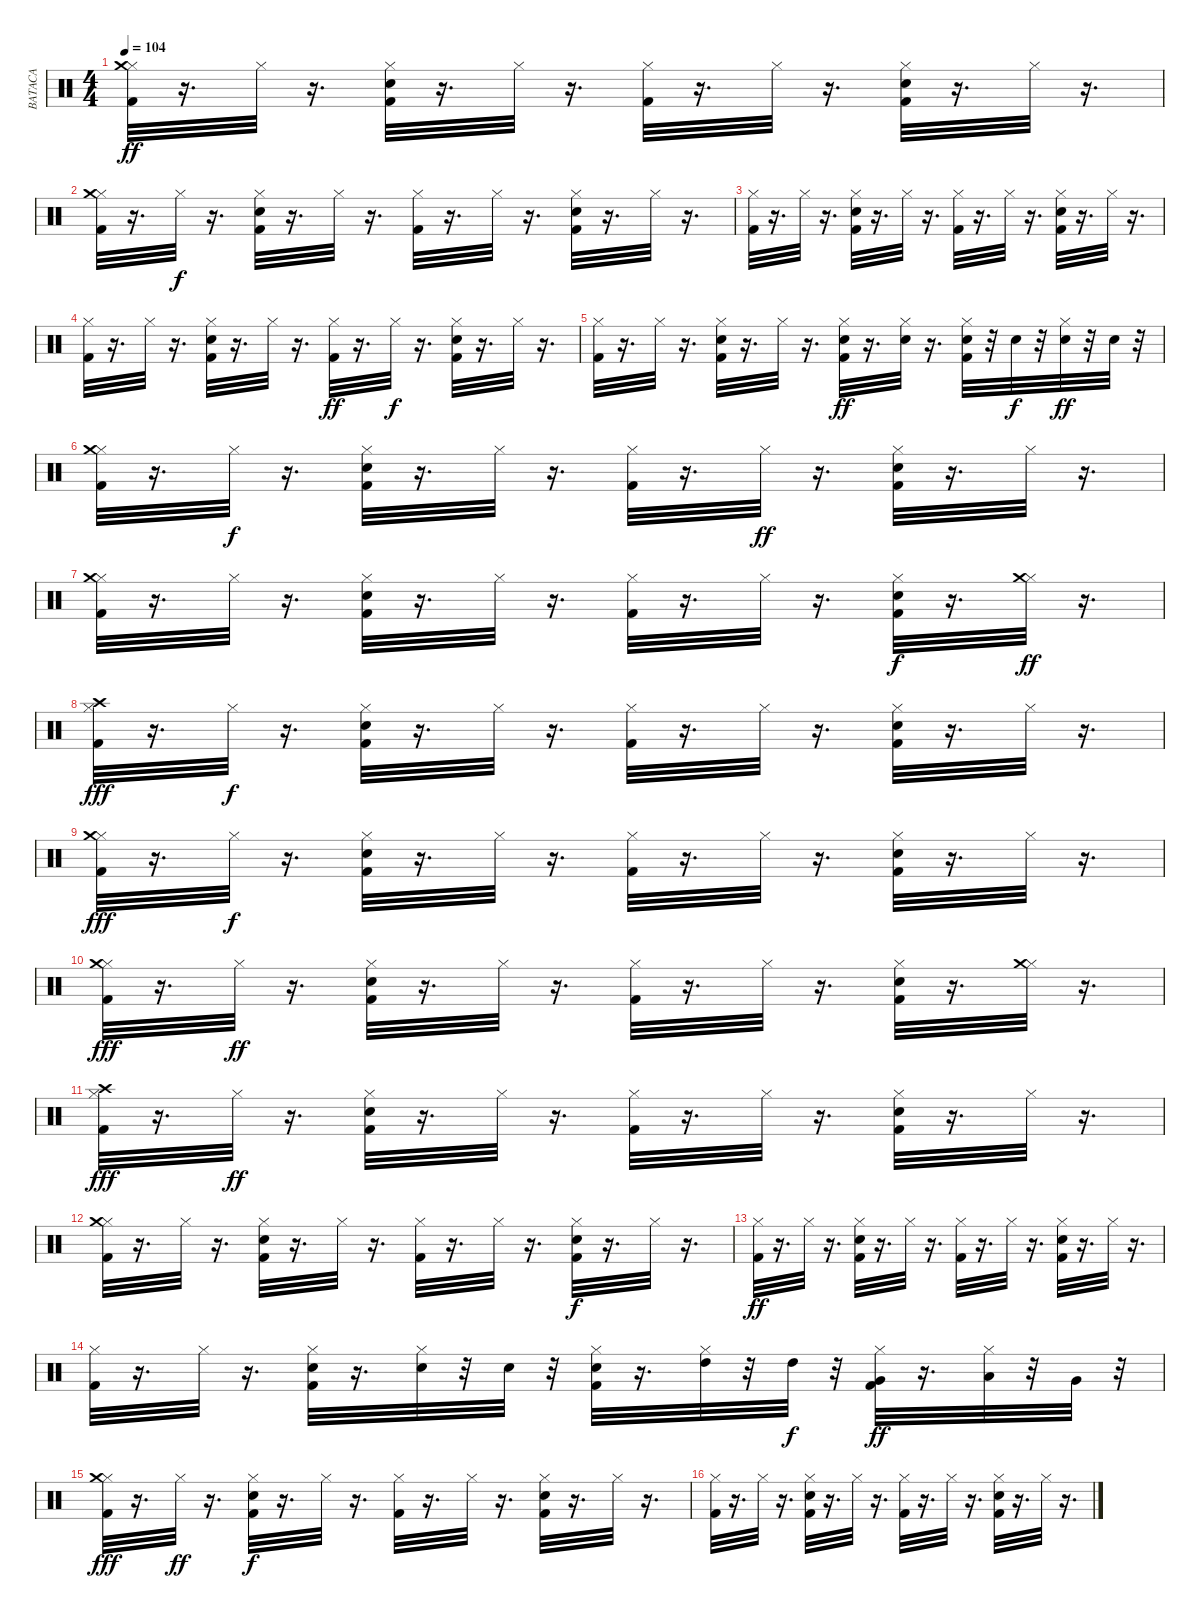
\track ("BATACA" "BATACA") {instrument percussion}
\staff {score}
\articulation defaults
\ts (4 4)
\tempo 104
\clef neutral
\ks c
("Hi-Hat (closed)" "Kick (hit) 2" "Crash medium (hit)").32{dy ff} r.16{d} "Hi-Hat (closed)".32 r.16{d} ("Hi-Hat (closed)" "Kick (hit) 2" "Electric Snare (hit)").32 r.16{d} "Hi-Hat (closed)".32 r.16{d} ("Hi-Hat (closed)" "Kick (hit) 2").32 r.16{d} "Hi-Hat (closed)".32 r.16{d} ("Hi-Hat (closed)" "Kick (hit) 2" "Electric Snare (hit)").32 r.16{d} "Hi-Hat (closed)".32 r.16{d} |
("Hi-Hat (closed)" "Kick (hit) 2" "Crash medium (hit)").32 r.16{d} "Hi-Hat (closed)".32{dy f} r.16{d} ("Hi-Hat (closed)" "Kick (hit) 2" "Electric Snare (hit)").32 r.16{d} "Hi-Hat (closed)".32 r.16{d} ("Hi-Hat (closed)" "Kick (hit) 2").32 r.16{d} "Hi-Hat (closed)".32 r.16{d} ("Hi-Hat (closed)" "Kick (hit) 2" "Electric Snare (hit)").32 r.16{d} "Hi-Hat (closed)".32 r.16{d} |
("Hi-Hat (closed)" "Kick (hit) 2").32 r.16{d} "Hi-Hat (closed)".32 r.16{d} ("Hi-Hat (closed)" "Kick (hit) 2" "Electric Snare (hit)").32 r.16{d} "Hi-Hat (closed)".32 r.16{d} ("Hi-Hat (closed)" "Kick (hit) 2").32 r.16{d} "Hi-Hat (closed)".32 r.16{d} ("Hi-Hat (closed)" "Kick (hit) 2" "Electric Snare (hit)").32 r.16{d} "Hi-Hat (closed)".32 r.16{d} |
("Hi-Hat (closed)" "Kick (hit) 2").32 r.16{d} "Hi-Hat (closed)".32 r.16{d} ("Hi-Hat (closed)" "Kick (hit) 2" "Electric Snare (hit)").32 r.16{d} "Hi-Hat (closed)".32 r.16{d} ("Hi-Hat (closed)" "Kick (hit) 2").32{dy ff} r.16{d} "Hi-Hat (closed)".32{dy f} r.16{d} ("Hi-Hat (closed)" "Kick (hit) 2" "Electric Snare (hit)").32 r.16{d} "Hi-Hat (closed)".32 r.16{d} |
("Hi-Hat (closed)" "Kick (hit) 2").32 r.16{d} "Hi-Hat (closed)".32 r.16{d} ("Hi-Hat (closed)" "Kick (hit) 2" "Electric Snare (hit)").32 r.16{d} "Hi-Hat (closed)".32 r.16{d} ("Hi-Hat (closed)" "Kick (hit) 2" "Electric Snare (hit)").32{dy ff} r.16{d} ("Hi-Hat (closed)" "Electric Snare (hit)").32 r.16{d} ("Hi-Hat (closed)" "Kick (hit) 2" "Electric Snare (hit)").32 r.32 "Electric Snare (hit)".32{dy f} r.32 ("Hi-Hat (closed)" "Electric Snare (hit)").32{dy ff} r.32 "Electric Snare (hit)".32 r.32 |
("Hi-Hat (closed)" "Kick (hit) 2" "Crash medium (hit)").32 r.16{d} "Hi-Hat (closed)".32{dy f} r.16{d} ("Hi-Hat (closed)" "Kick (hit) 2" "Electric Snare (hit)").32 r.16{d} "Hi-Hat (closed)".32 r.16{d} ("Hi-Hat (closed)" "Kick (hit) 2").32 r.16{d} "Hi-Hat (closed)".32{dy ff} r.16{d} ("Hi-Hat (closed)" "Kick (hit) 2" "Electric Snare (hit)").32 r.16{d} "Hi-Hat (closed)".32 r.16{d} |
("Hi-Hat (closed)" "Kick (hit) 2" "Crash medium (hit)").32 r.16{d} "Hi-Hat (closed)".32 r.16{d} ("Hi-Hat (closed)" "Kick (hit) 2" "Electric Snare (hit)").32 r.16{d} "Hi-Hat (closed)".32 r.16{d} ("Hi-Hat (closed)" "Kick (hit) 2").32 r.16{d} "Hi-Hat (closed)".32 r.16{d} ("Hi-Hat (closed)" "Kick (hit) 2" "Electric Snare (hit)").32{dy f} r.16{d} ("Hi-Hat (closed)" "Crash medium (hit)").32{dy ff} r.16{d} |
("Hi-Hat (closed)" "Kick (hit) 2" "Crash high (hit)").32{dy fff} r.16{d} "Hi-Hat (closed)".32{dy f} r.16{d} ("Hi-Hat (closed)" "Kick (hit) 2" "Electric Snare (hit)").32 r.16{d} "Hi-Hat (closed)".32 r.16{d} ("Hi-Hat (closed)" "Kick (hit) 2").32 r.16{d} "Hi-Hat (closed)".32 r.16{d} ("Hi-Hat (closed)" "Kick (hit) 2" "Electric Snare (hit)").32 r.16{d} "Hi-Hat (closed)".32 r.16{d} |
("Hi-Hat (closed)" "Kick (hit) 2" "Crash medium (hit)").32{dy fff} r.16{d} "Hi-Hat (closed)".32{dy f} r.16{d} ("Hi-Hat (closed)" "Kick (hit) 2" "Electric Snare (hit)").32 r.16{d} "Hi-Hat (closed)".32 r.16{d} ("Hi-Hat (closed)" "Kick (hit) 2").32 r.16{d} "Hi-Hat (closed)".32 r.16{d} ("Hi-Hat (closed)" "Kick (hit) 2" "Electric Snare (hit)").32 r.16{d} "Hi-Hat (closed)".32 r.16{d} |
("Hi-Hat (closed)" "Kick (hit) 2" "Crash medium (hit)").32{dy fff} r.16{d} "Hi-Hat (closed)".32{dy ff} r.16{d} ("Hi-Hat (closed)" "Kick (hit) 2" "Electric Snare (hit)").32 r.16{d} "Hi-Hat (closed)".32 r.16{d} ("Hi-Hat (closed)" "Kick (hit) 2").32 r.16{d} "Hi-Hat (closed)".32 r.16{d} ("Hi-Hat (closed)" "Kick (hit) 2" "Electric Snare (hit)").32 r.16{d} ("Hi-Hat (closed)" "Crash medium (hit)").32 r.16{d} |
("Hi-Hat (closed)" "Kick (hit) 2" "Crash high (hit)").32{dy fff} r.16{d} "Hi-Hat (closed)".32{dy ff} r.16{d} ("Hi-Hat (closed)" "Kick (hit) 2" "Electric Snare (hit)").32 r.16{d} "Hi-Hat (closed)".32 r.16{d} ("Hi-Hat (closed)" "Kick (hit) 2").32 r.16{d} "Hi-Hat (closed)".32 r.16{d} ("Hi-Hat (closed)" "Kick (hit) 2" "Electric Snare (hit)").32 r.16{d} "Hi-Hat (closed)".32 r.16{d} |
("Hi-Hat (closed)" "Kick (hit) 2" "Crash medium (hit)").32 r.16{d} "Hi-Hat (closed)".32 r.16{d} ("Hi-Hat (closed)" "Kick (hit) 2" "Electric Snare (hit)").32 r.16{d} "Hi-Hat (closed)".32 r.16{d} ("Hi-Hat (closed)" "Kick (hit) 2").32 r.16{d} "Hi-Hat (closed)".32 r.16{d} ("Hi-Hat (closed)" "Kick (hit) 2" "Electric Snare (hit)").32{dy f} r.16{d} "Hi-Hat (closed)".32 r.16{d} |
("Hi-Hat (closed)" "Kick (hit) 2").32{dy ff} r.16{d} "Hi-Hat (closed)".32 r.16{d} ("Hi-Hat (closed)" "Kick (hit) 2" "Electric Snare (hit)").32 r.16{d} "Hi-Hat (closed)".32 r.16{d} ("Hi-Hat (closed)" "Kick (hit) 2").32 r.16{d} "Hi-Hat (closed)".32 r.16{d} ("Hi-Hat (closed)" "Kick (hit) 2" "Electric Snare (hit)").32 r.16{d} "Hi-Hat (closed)".32 r.16{d} |
("Hi-Hat (closed)" "Kick (hit) 2").32 r.16{d} "Hi-Hat (closed)".32 r.16{d} ("Hi-Hat (closed)" "Kick (hit) 2" "Electric Snare (hit)").32 r.16{d} ("Hi-Hat (closed)" "Electric Snare (hit)").32 r.32 "Electric Snare (hit)".32 r.32 ("Hi-Hat (closed)" "Kick (hit) 2" "Electric Snare (hit)").32 r.16{d} ("Hi-Hat (closed)" "High Tom (hit)").32 r.32 "High Tom (hit)".32{dy f} r.32 ("Hi-Hat (closed)" "Kick (hit) 2" "Very Low Tom (hit)").32{dy ff} r.16{d} ("Hi-Hat (closed)" "Low Floor Tom (hit)").32 r.32 "Very Low Tom (hit)".32 r.32 |
("Hi-Hat (closed)" "Kick (hit) 2" "Crash medium (hit)").32{dy fff} r.16{d} "Hi-Hat (closed)".32{dy ff} r.16{d} ("Hi-Hat (closed)" "Kick (hit) 2" "Electric Snare (hit)").32{dy f} r.16{d} "Hi-Hat (closed)".32 r.16{d} ("Hi-Hat (closed)" "Kick (hit) 2").32 r.16{d} "Hi-Hat (closed)".32 r.16{d} ("Hi-Hat (closed)" "Kick (hit) 2" "Electric Snare (hit)").32 r.16{d} "Hi-Hat (closed)".32 r.16{d} |
("Hi-Hat (closed)" "Kick (hit) 2").32 r.16{d} "Hi-Hat (closed)".32 r.16{d} ("Hi-Hat (closed)" "Kick (hit) 2" "Electric Snare (hit)").32 r.16{d} "Hi-Hat (closed)".32 r.16{d} ("Hi-Hat (closed)" "Kick (hit) 2").32 r.16{d} "Hi-Hat (closed)".32 r.16{d} ("Hi-Hat (closed)" "Kick (hit) 2" "Electric Snare (hit)").32 r.16{d} "Hi-Hat (closed)".32 r.16{d}
